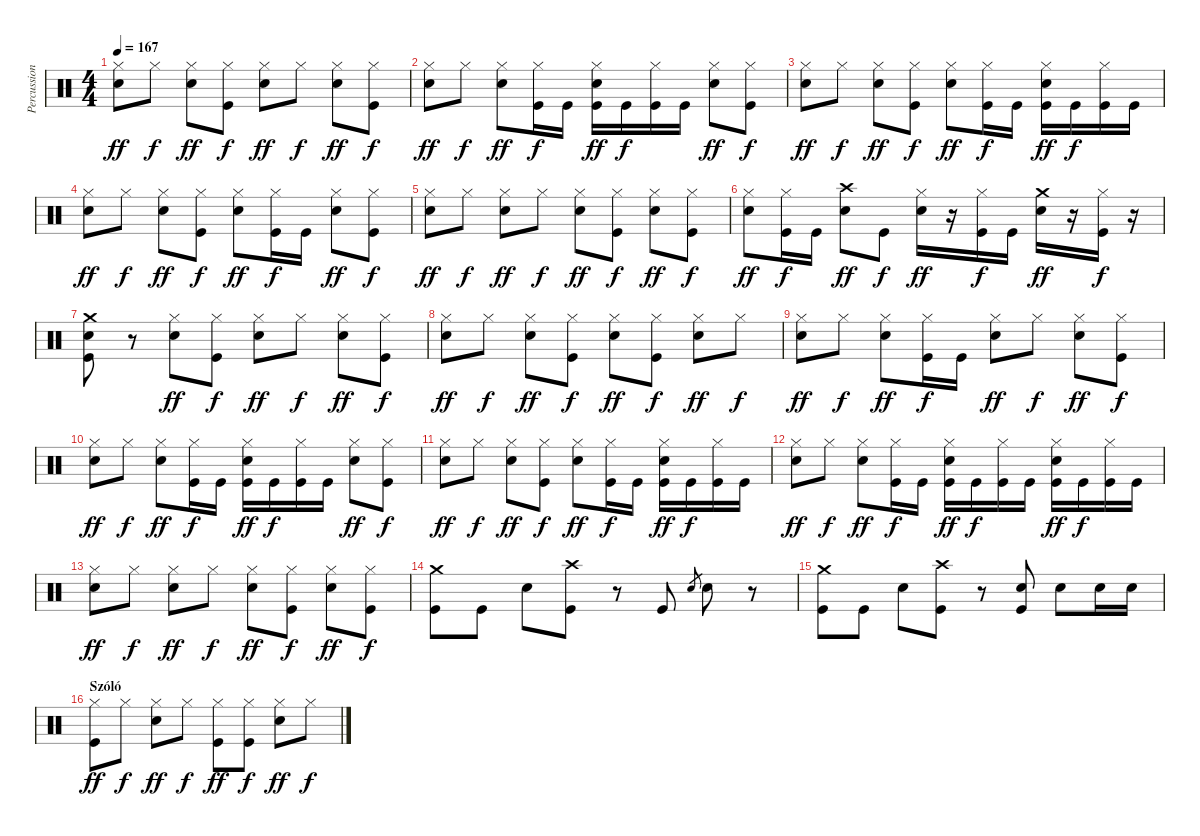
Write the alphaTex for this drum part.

\track ("Percussion" "Percussion") {instrument percussion}
\staff {score}
\articulation defaults
\ts (4 4)
\tempo 167
\clef neutral
\ks c
("Hi-Hat (closed)" "Electric Snare (hit)").8{dy ff} "Hi-Hat (closed)".8{dy f} ("Hi-Hat (closed)" "Electric Snare (hit)").8{dy ff} ("Hi-Hat (closed)" "Kick (hit)").8{dy f} ("Hi-Hat (closed)" "Electric Snare (hit)").8{dy ff} "Hi-Hat (closed)".8{dy f} ("Hi-Hat (closed)" "Electric Snare (hit)").8{dy ff} ("Hi-Hat (closed)" "Kick (hit)").8{dy f} |
("Hi-Hat (closed)" "Electric Snare (hit)").8{dy ff} "Hi-Hat (closed)".8{dy f} ("Hi-Hat (closed)" "Electric Snare (hit)").8{dy ff} ("Hi-Hat (closed)" "Kick (hit)").16{dy f} "Kick (hit)".16 ("Hi-Hat (closed)" "Kick (hit)" "Electric Snare (hit)").16{dy ff} "Kick (hit)".16{dy f} ("Hi-Hat (closed)" "Kick (hit)").16 "Kick (hit)".16 ("Hi-Hat (closed)" "Electric Snare (hit)").8{dy ff} ("Hi-Hat (closed)" "Kick (hit)").8{dy f} |
("Hi-Hat (closed)" "Electric Snare (hit)").8{dy ff} "Hi-Hat (closed)".8{dy f} ("Hi-Hat (closed)" "Electric Snare (hit)").8{dy ff} ("Hi-Hat (closed)" "Kick (hit)").8{dy f} ("Hi-Hat (closed)" "Electric Snare (hit)").8{dy ff} ("Hi-Hat (closed)" "Kick (hit)").16{dy f} "Kick (hit)".16 ("Hi-Hat (closed)" "Kick (hit)" "Electric Snare (hit)").16{dy ff} "Kick (hit)".16{dy f} ("Hi-Hat (closed)" "Kick (hit)").16 "Kick (hit)".16 |
("Hi-Hat (closed)" "Electric Snare (hit)").8{dy ff} "Hi-Hat (closed)".8{dy f} ("Hi-Hat (closed)" "Electric Snare (hit)").8{dy ff} ("Hi-Hat (closed)" "Kick (hit)").8{dy f} ("Hi-Hat (closed)" "Electric Snare (hit)").8{dy ff} ("Hi-Hat (closed)" "Kick (hit)").16{dy f} "Kick (hit)".16 ("Hi-Hat (closed)" "Electric Snare (hit)").8{dy ff} ("Hi-Hat (closed)" "Kick (hit)").8{dy f} |
("Hi-Hat (closed)" "Electric Snare (hit)").8{dy ff} "Hi-Hat (closed)".8{dy f} ("Hi-Hat (closed)" "Electric Snare (hit)").8{dy ff} "Hi-Hat (closed)".8{dy f} ("Hi-Hat (closed)" "Electric Snare (hit)").8{dy ff} ("Hi-Hat (closed)" "Kick (hit)").8{dy f} ("Hi-Hat (closed)" "Electric Snare (hit)").8{dy ff} ("Hi-Hat (closed)" "Kick (hit)").8{dy f} |
("Hi-Hat (closed)" "Electric Snare (hit)").8{dy ff} ("Hi-Hat (closed)" "Kick (hit)").16{dy f} "Kick (hit)".16 ("Crash high (hit)" "Electric Snare (hit)").8{dy ff} "Kick (hit)".8{dy f} ("Hi-Hat (closed)" "Electric Snare (hit)").16{dy ff} r.16 ("Hi-Hat (closed)" "Kick (hit)").16{dy f} "Kick (hit)".16 ("Crash medium (hit)" "Electric Snare (hit)").16{dy ff} r.16 ("Hi-Hat (closed)" "Kick (hit)").16{dy f} r.16 |
("Crash medium (hit)" "Kick (hit)" "Electric Snare (hit)").8 r.8 ("Hi-Hat (closed)" "Electric Snare (hit)").8{dy ff} ("Hi-Hat (closed)" "Kick (hit)").8{dy f} ("Hi-Hat (closed)" "Electric Snare (hit)").8{dy ff} "Hi-Hat (closed)".8{dy f} ("Hi-Hat (closed)" "Electric Snare (hit)").8{dy ff} ("Hi-Hat (closed)" "Kick (hit)").8{dy f} |
("Hi-Hat (closed)" "Electric Snare (hit)").8{dy ff} "Hi-Hat (closed)".8{dy f} ("Hi-Hat (closed)" "Electric Snare (hit)").8{dy ff} ("Hi-Hat (closed)" "Kick (hit)").8{dy f} ("Hi-Hat (closed)" "Electric Snare (hit)").8{dy ff} ("Hi-Hat (closed)" "Kick (hit)").8{dy f} ("Hi-Hat (closed)" "Electric Snare (hit)").8{dy ff} "Hi-Hat (closed)".8{dy f} |
("Hi-Hat (closed)" "Electric Snare (hit)").8{dy ff} "Hi-Hat (closed)".8{dy f} ("Hi-Hat (closed)" "Electric Snare (hit)").8{dy ff} ("Hi-Hat (closed)" "Kick (hit)").16{dy f} "Kick (hit)".16 ("Hi-Hat (closed)" "Electric Snare (hit)").8{dy ff} "Hi-Hat (closed)".8{dy f} ("Hi-Hat (closed)" "Electric Snare (hit)").8{dy ff} ("Hi-Hat (closed)" "Kick (hit)").8{dy f} |
("Hi-Hat (closed)" "Electric Snare (hit)").8{dy ff} "Hi-Hat (closed)".8{dy f} ("Hi-Hat (closed)" "Electric Snare (hit)").8{dy ff} ("Hi-Hat (closed)" "Kick (hit)").16{dy f} "Kick (hit)".16 ("Hi-Hat (closed)" "Kick (hit)" "Electric Snare (hit)").16{dy ff} "Kick (hit)".16{dy f} ("Hi-Hat (closed)" "Kick (hit)").16 "Kick (hit)".16 ("Hi-Hat (closed)" "Electric Snare (hit)").8{dy ff} ("Hi-Hat (closed)" "Kick (hit)").8{dy f} |
("Hi-Hat (closed)" "Electric Snare (hit)").8{dy ff} "Hi-Hat (closed)".8{dy f} ("Hi-Hat (closed)" "Electric Snare (hit)").8{dy ff} ("Hi-Hat (closed)" "Kick (hit)").8{dy f} ("Hi-Hat (closed)" "Electric Snare (hit)").8{dy ff} ("Hi-Hat (closed)" "Kick (hit)").16{dy f} "Kick (hit)".16 ("Hi-Hat (closed)" "Kick (hit)" "Electric Snare (hit)").16{dy ff} "Kick (hit)".16{dy f} ("Hi-Hat (closed)" "Kick (hit)").16 "Kick (hit)".16 |
("Hi-Hat (closed)" "Electric Snare (hit)").8{dy ff} "Hi-Hat (closed)".8{dy f} ("Hi-Hat (closed)" "Electric Snare (hit)").8{dy ff} ("Hi-Hat (closed)" "Kick (hit)").16{dy f} "Kick (hit)".16 ("Hi-Hat (closed)" "Kick (hit)" "Electric Snare (hit)").16{dy ff} "Kick (hit)".16{dy f} ("Hi-Hat (closed)" "Kick (hit)").16 "Kick (hit)".16 ("Hi-Hat (closed)" "Kick (hit)" "Electric Snare (hit)").16{dy ff} "Kick (hit)".16{dy f} ("Hi-Hat (closed)" "Kick (hit)").16 "Kick (hit)".16 |
("Hi-Hat (closed)" "Electric Snare (hit)").8{dy ff} "Hi-Hat (closed)".8{dy f} ("Hi-Hat (closed)" "Electric Snare (hit)").8{dy ff} "Hi-Hat (closed)".8{dy f} ("Hi-Hat (closed)" "Electric Snare (hit)").8{dy ff} ("Hi-Hat (closed)" "Kick (hit)").8{dy f} ("Hi-Hat (closed)" "Electric Snare (hit)").8{dy ff} ("Hi-Hat (closed)" "Kick (hit)").8{dy f} |
("Crash medium (hit)" "Kick (hit)").8 "Kick (hit)".8 "Electric Snare (hit)".8 ("Crash high (hit)" "Kick (hit)").8 r.8 "Kick (hit)".8 "Electric Snare (hit)".8{gr} "Electric Snare (hit)".8 r.8 |
("Crash medium (hit)" "Kick (hit)").8 "Kick (hit)".8 "Electric Snare (hit)".8 ("Crash high (hit)" "Kick (hit)").8 r.8 ("Kick (hit)" "Electric Snare (hit)").8 "Electric Snare (hit)".8 "Electric Snare (hit)".16 "Electric Snare (hit)".16 |
\section ("" "Szóló")
("Hi-Hat (closed)" "Kick (hit)").8{dy ff} "Hi-Hat (closed)".8{dy f} ("Hi-Hat (closed)" "Electric Snare (hit)").8{dy ff} "Hi-Hat (closed)".8{dy f} ("Hi-Hat (closed)" "Kick (hit)").8{dy ff} ("Hi-Hat (closed)" "Kick (hit)").8{dy f} ("Hi-Hat (closed)" "Electric Snare (hit)").8{dy ff} "Hi-Hat (closed)".8{dy f}
